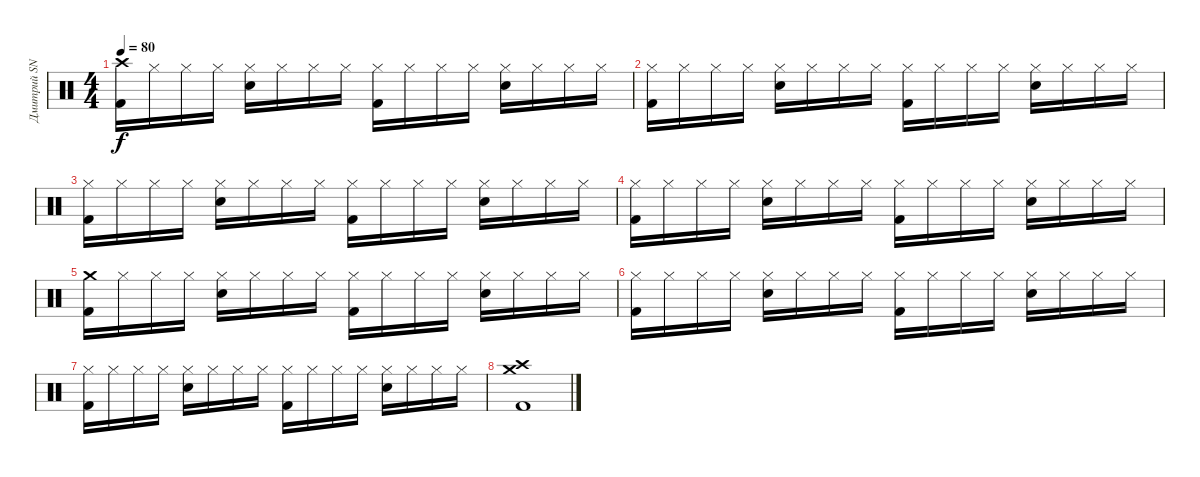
\track ("Дмитрий SNAKE Хакимов" "Дмитрий SN") {instrument percussion}
\staff {score}
\articulation defaults
\ts (4 4)
\tempo 80
\clef neutral
\ks c
("Crash high (hit)" "Kick (hit) 2").16{dy f} "Hi-Hat (closed)".16 "Hi-Hat (closed)".16 "Hi-Hat (closed)".16 ("Hi-Hat (closed)" "Electric Snare (hit)").16 "Hi-Hat (closed)".16 "Hi-Hat (closed)".16 "Hi-Hat (closed)".16 ("Hi-Hat (closed)" "Kick (hit) 2").16 "Hi-Hat (closed)".16 "Hi-Hat (closed)".16 "Hi-Hat (closed)".16 ("Hi-Hat (closed)" "Electric Snare (hit)").16 "Hi-Hat (closed)".16 "Hi-Hat (closed)".16 "Hi-Hat (closed)".16 |
("Hi-Hat (closed)" "Kick (hit) 2").16 "Hi-Hat (closed)".16 "Hi-Hat (closed)".16 "Hi-Hat (closed)".16 ("Hi-Hat (closed)" "Electric Snare (hit)").16 "Hi-Hat (closed)".16 "Hi-Hat (closed)".16 "Hi-Hat (closed)".16 ("Hi-Hat (closed)" "Kick (hit) 2").16 "Hi-Hat (closed)".16 "Hi-Hat (closed)".16 "Hi-Hat (closed)".16 ("Hi-Hat (closed)" "Electric Snare (hit)").16 "Hi-Hat (closed)".16 "Hi-Hat (closed)".16 "Hi-Hat (closed)".16 |
("Hi-Hat (closed)" "Kick (hit) 2").16 "Hi-Hat (closed)".16 "Hi-Hat (closed)".16 "Hi-Hat (closed)".16 ("Hi-Hat (closed)" "Electric Snare (hit)").16 "Hi-Hat (closed)".16 "Hi-Hat (closed)".16 "Hi-Hat (closed)".16 ("Hi-Hat (closed)" "Kick (hit) 2").16 "Hi-Hat (closed)".16 "Hi-Hat (closed)".16 "Hi-Hat (closed)".16 ("Hi-Hat (closed)" "Electric Snare (hit)").16 "Hi-Hat (closed)".16 "Hi-Hat (closed)".16 "Hi-Hat (closed)".16 |
("Hi-Hat (closed)" "Kick (hit) 2").16 "Hi-Hat (closed)".16 "Hi-Hat (closed)".16 "Hi-Hat (closed)".16 ("Hi-Hat (closed)" "Electric Snare (hit)").16 "Hi-Hat (closed)".16 "Hi-Hat (closed)".16 "Hi-Hat (closed)".16 ("Hi-Hat (closed)" "Kick (hit) 2").16 "Hi-Hat (closed)".16 "Hi-Hat (closed)".16 "Hi-Hat (closed)".16 ("Hi-Hat (closed)" "Electric Snare (hit)").16 "Hi-Hat (closed)".16 "Hi-Hat (closed)".16 "Hi-Hat (closed)".16 |
("Crash medium (hit)" "Kick (hit) 2").16 "Hi-Hat (closed)".16 "Hi-Hat (closed)".16 "Hi-Hat (closed)".16 ("Hi-Hat (closed)" "Electric Snare (hit)").16 "Hi-Hat (closed)".16 "Hi-Hat (closed)".16 "Hi-Hat (closed)".16 ("Hi-Hat (closed)" "Kick (hit) 2").16 "Hi-Hat (closed)".16 "Hi-Hat (closed)".16 "Hi-Hat (closed)".16 ("Hi-Hat (closed)" "Electric Snare (hit)").16 "Hi-Hat (closed)".16 "Hi-Hat (closed)".16 "Hi-Hat (closed)".16 |
("Hi-Hat (closed)" "Kick (hit) 2").16 "Hi-Hat (closed)".16 "Hi-Hat (closed)".16 "Hi-Hat (closed)".16 ("Hi-Hat (closed)" "Electric Snare (hit)").16 "Hi-Hat (closed)".16 "Hi-Hat (closed)".16 "Hi-Hat (closed)".16 ("Hi-Hat (closed)" "Kick (hit) 2").16 "Hi-Hat (closed)".16 "Hi-Hat (closed)".16 "Hi-Hat (closed)".16 ("Hi-Hat (closed)" "Electric Snare (hit)").16 "Hi-Hat (closed)".16 "Hi-Hat (closed)".16 "Hi-Hat (closed)".16 |
("Hi-Hat (closed)" "Kick (hit) 2").16 "Hi-Hat (closed)".16 "Hi-Hat (closed)".16 "Hi-Hat (closed)".16 ("Hi-Hat (closed)" "Electric Snare (hit)").16 "Hi-Hat (closed)".16 "Hi-Hat (closed)".16 "Hi-Hat (closed)".16 ("Hi-Hat (closed)" "Kick (hit) 2").16 "Hi-Hat (closed)".16 "Hi-Hat (closed)".16 "Hi-Hat (closed)".16 ("Hi-Hat (closed)" "Electric Snare (hit)").16 "Hi-Hat (closed)".16 "Hi-Hat (closed)".16 "Hi-Hat (closed)".16 |
("Crash high (hit)" "Crash medium (hit)" "Kick (hit) 2").1
